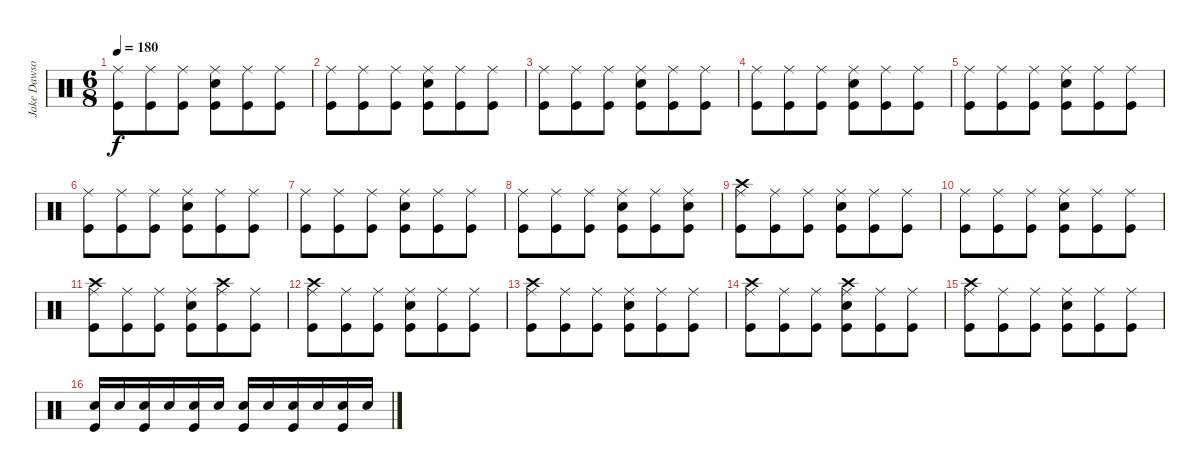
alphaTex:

\track ("Jake Dawson" "Jake Dawso") {instrument percussion}
\staff {score}
\articulation defaults
\ts (6 8)
\tempo 180
\clef neutral
\ks c
("Ride (middle)" "Kick (hit)").8{dy f} ("Ride (middle)" "Kick (hit)").8 ("Ride (middle)" "Kick (hit)").8 ("Ride (middle)" "Snare (hit) 2" "Kick (hit)").8 ("Ride (middle)" "Kick (hit)").8 ("Ride (middle)" "Kick (hit)").8 |
("Ride (middle)" "Kick (hit)").8 ("Ride (middle)" "Kick (hit)").8 ("Ride (middle)" "Kick (hit)").8 ("Ride (middle)" "Snare (hit) 2" "Kick (hit)").8 ("Ride (middle)" "Kick (hit)").8 ("Ride (middle)" "Kick (hit)").8 |
("Ride (middle)" "Kick (hit)").8 ("Ride (middle)" "Kick (hit)").8 ("Ride (middle)" "Kick (hit)").8 ("Ride (middle)" "Snare (hit) 2" "Kick (hit)").8 ("Ride (middle)" "Kick (hit)").8 ("Ride (middle)" "Kick (hit)").8 |
("Ride (middle)" "Kick (hit)").8 ("Ride (middle)" "Kick (hit)").8 ("Ride (middle)" "Kick (hit)").8 ("Ride (middle)" "Snare (hit) 2" "Kick (hit)").8 ("Ride (middle)" "Kick (hit)").8 ("Ride (middle)" "Kick (hit)").8 |
("Ride (middle)" "Kick (hit)").8 ("Ride (middle)" "Kick (hit)").8 ("Ride (middle)" "Kick (hit)").8 ("Ride (middle)" "Snare (hit) 2" "Kick (hit)").8 ("Ride (middle)" "Kick (hit)").8 ("Ride (middle)" "Kick (hit)").8 |
("Ride (middle)" "Kick (hit)").8 ("Ride (middle)" "Kick (hit)").8 ("Ride (middle)" "Kick (hit)").8 ("Ride (middle)" "Snare (hit) 2" "Kick (hit)").8 ("Ride (middle)" "Kick (hit)").8 ("Ride (middle)" "Kick (hit)").8 |
("Ride (middle)" "Kick (hit)").8 ("Ride (middle)" "Kick (hit)").8 ("Ride (middle)" "Kick (hit)").8 ("Ride (middle)" "Snare (hit) 2" "Kick (hit)").8 ("Ride (middle)" "Kick (hit)").8 ("Ride (middle)" "Kick (hit)").8 |
("Ride (middle)" "Kick (hit)").8 ("Ride (middle)" "Kick (hit)").8 ("Ride (middle)" "Kick (hit)").8 ("Ride (middle)" "Snare (hit) 2" "Kick (hit)").8 ("Ride (middle)" "Kick (hit)").8 ("Ride (middle)" "Snare (hit) 2" "Kick (hit)").8 |
("Crash high (hit)" "Ride (middle)" "Kick (hit)").8 ("Ride (middle)" "Kick (hit)").8 ("Ride (middle)" "Kick (hit)").8 ("Ride (middle)" "Snare (hit) 2" "Kick (hit)").8 ("Ride (middle)" "Kick (hit)").8 ("Ride (middle)" "Kick (hit)").8 |
("Ride (middle)" "Kick (hit)").8 ("Ride (middle)" "Kick (hit)").8 ("Ride (middle)" "Kick (hit)").8 ("Ride (middle)" "Snare (hit) 2" "Kick (hit)").8 ("Ride (middle)" "Kick (hit)").8 ("Ride (middle)" "Kick (hit)").8 |
("Crash high (hit)" "Ride (middle)" "Kick (hit)").8 ("Ride (middle)" "Kick (hit)").8 ("Ride (middle)" "Kick (hit)").8 ("Ride (middle)" "Snare (hit) 2" "Kick (hit)").8 ("Crash high (hit)" "Ride (middle)" "Kick (hit)").8 ("Ride (middle)" "Kick (hit)").8 |
("Crash high (hit)" "Ride (middle)" "Kick (hit)").8 ("Ride (middle)" "Kick (hit)").8 ("Ride (middle)" "Kick (hit)").8 ("Ride (middle)" "Snare (hit) 2" "Kick (hit)").8 ("Ride (middle)" "Kick (hit)").8 ("Ride (middle)" "Kick (hit)").8 |
("Crash high (hit)" "Ride (middle)" "Kick (hit)").8 ("Ride (middle)" "Kick (hit)").8 ("Ride (middle)" "Kick (hit)").8 ("Ride (middle)" "Snare (hit) 2" "Kick (hit)").8 ("Ride (middle)" "Kick (hit)").8 ("Ride (middle)" "Kick (hit)").8 |
("Crash high (hit)" "Ride (middle)" "Kick (hit)").8 ("Ride (middle)" "Kick (hit)").8 ("Ride (middle)" "Kick (hit)").8 ("Crash high (hit)" "Ride (middle)" "Snare (hit) 2" "Kick (hit)").8 ("Ride (middle)" "Kick (hit)").8 ("Ride (middle)" "Kick (hit)").8 |
("Crash high (hit)" "Ride (middle)" "Kick (hit)").8 ("Ride (middle)" "Kick (hit)").8 ("Ride (middle)" "Kick (hit)").8 ("Ride (middle)" "Snare (hit) 2" "Kick (hit)").8 ("Ride (middle)" "Kick (hit)").8 ("Ride (middle)" "Kick (hit)").8 |
("Snare (hit) 2" "Kick (hit)").16 "Snare (hit) 2".16 ("Snare (hit) 2" "Kick (hit)").16 "Snare (hit) 2".16 ("Snare (hit) 2" "Kick (hit)").16 "Snare (hit) 2".16 ("Snare (hit) 2" "Kick (hit)").16 "Snare (hit) 2".16 ("Snare (hit) 2" "Kick (hit)").16 "Snare (hit) 2".16 ("Snare (hit) 2" "Kick (hit)").16 "Snare (hit) 2".16
